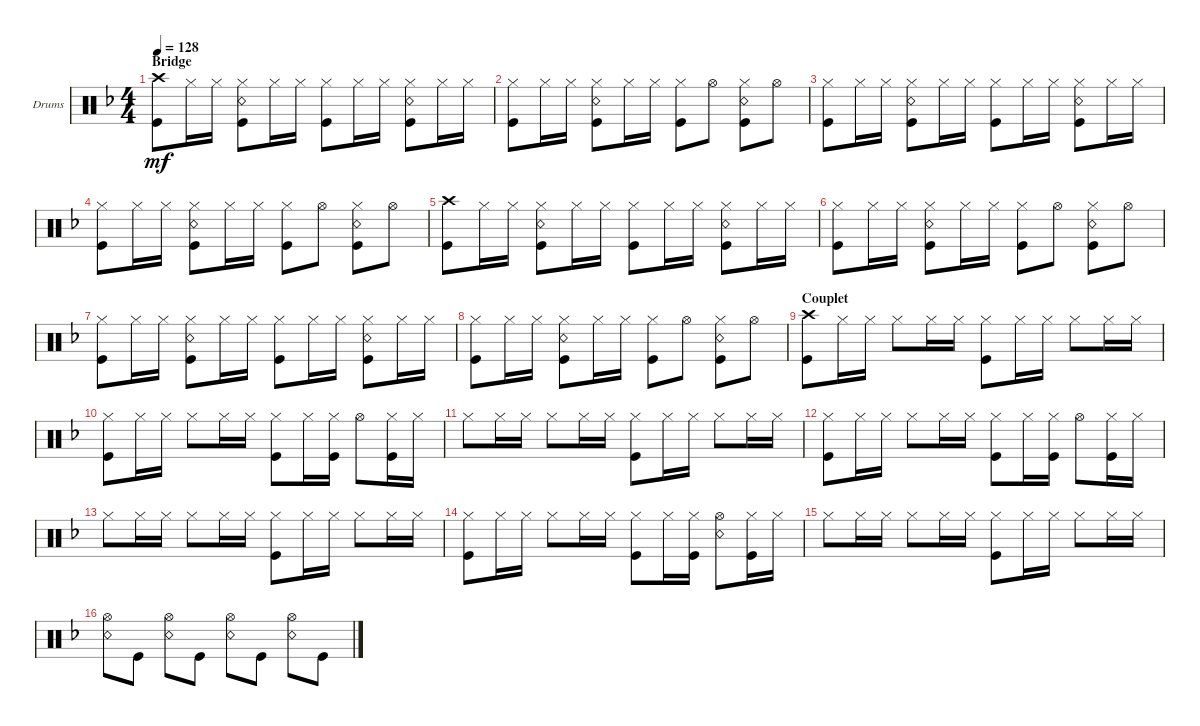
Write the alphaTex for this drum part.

\defaultSystemsLayout 4
\bracketExtendMode groupsimilarinstruments
\firstSystemTrackNameOrientation horizontal
\otherSystemsTrackNameOrientation horizontal
\track ("Drumkit" "Drums") {instrument percussion}
\staff {score}
\articulation defaults
\ts (4 4)
\section ("" "Bridge")
\tempo 128
\clef neutral
\scale
0.333333
\ks f
("Kick (hit)" "Crash high (hit)").8{dy mf} "Hi-Hat (closed)".16 "Hi-Hat (closed)".16 ("Snare (rim shot)" "Hi-Hat (closed)" "Kick (hit)").8 "Hi-Hat (closed)".16 "Hi-Hat (closed)".16 ("Kick (hit)" "Hi-Hat (closed)").8 "Hi-Hat (closed)".16 "Hi-Hat (closed)".16 ("Snare (rim shot)" "Hi-Hat (closed)" "Kick (hit)").8 "Hi-Hat (closed)".16 "Hi-Hat (closed)".16 |
\scale
0.333333 ("Kick (hit)" "Hi-Hat (closed)").8 "Hi-Hat (closed)".16 "Hi-Hat (closed)".16 ("Snare (rim shot)" "Hi-Hat (closed)" "Kick (hit)").8 "Hi-Hat (closed)".16 "Hi-Hat (closed)".16 ("Kick (hit)" "Hi-Hat (closed)").8 "Hi-Hat (open)".8 ("Snare (rim shot)" "Hi-Hat (closed)" "Kick (hit)").8 "Hi-Hat (open)".8 |
\scale
0.333333 ("Kick (hit)" "Hi-Hat (closed)").8 "Hi-Hat (closed)".16 "Hi-Hat (closed)".16 ("Snare (rim shot)" "Hi-Hat (closed)" "Kick (hit)").8 "Hi-Hat (closed)".16 "Hi-Hat (closed)".16 ("Kick (hit)" "Hi-Hat (closed)").8 "Hi-Hat (closed)".16 "Hi-Hat (closed)".16 ("Snare (rim shot)" "Hi-Hat (closed)" "Kick (hit)").8 "Hi-Hat (closed)".16 "Hi-Hat (closed)".16 |
\scale
0.333333 ("Kick (hit)" "Hi-Hat (closed)").8 "Hi-Hat (closed)".16 "Hi-Hat (closed)".16 ("Snare (rim shot)" "Hi-Hat (closed)" "Kick (hit)").8 "Hi-Hat (closed)".16 "Hi-Hat (closed)".16 ("Kick (hit)" "Hi-Hat (closed)").8 "Hi-Hat (open)".8 ("Snare (rim shot)" "Hi-Hat (closed)" "Kick (hit)").8 "Hi-Hat (open)".8 |
\scale
0.333333 ("Kick (hit)" "Crash high (hit)").8 "Hi-Hat (closed)".16 "Hi-Hat (closed)".16 ("Snare (rim shot)" "Hi-Hat (closed)" "Kick (hit)").8 "Hi-Hat (closed)".16 "Hi-Hat (closed)".16 ("Kick (hit)" "Hi-Hat (closed)").8 "Hi-Hat (closed)".16 "Hi-Hat (closed)".16 ("Snare (rim shot)" "Hi-Hat (closed)" "Kick (hit)").8 "Hi-Hat (closed)".16 "Hi-Hat (closed)".16 |
\scale
0.333333 ("Kick (hit)" "Hi-Hat (closed)").8 "Hi-Hat (closed)".16 "Hi-Hat (closed)".16 ("Snare (rim shot)" "Hi-Hat (closed)" "Kick (hit)").8 "Hi-Hat (closed)".16 "Hi-Hat (closed)".16 ("Kick (hit)" "Hi-Hat (closed)").8 "Hi-Hat (open)".8 ("Snare (rim shot)" "Hi-Hat (closed)" "Kick (hit)").8 "Hi-Hat (open)".8 |
\scale
0.333333 ("Kick (hit)" "Hi-Hat (closed)").8 "Hi-Hat (closed)".16 "Hi-Hat (closed)".16 ("Snare (rim shot)" "Hi-Hat (closed)" "Kick (hit)").8 "Hi-Hat (closed)".16 "Hi-Hat (closed)".16 ("Kick (hit)" "Hi-Hat (closed)").8 "Hi-Hat (closed)".16 "Hi-Hat (closed)".16 ("Snare (rim shot)" "Hi-Hat (closed)" "Kick (hit)").8 "Hi-Hat (closed)".16 "Hi-Hat (closed)".16 |
\scale
0.333333 ("Kick (hit)" "Hi-Hat (closed)").8 "Hi-Hat (closed)".16 "Hi-Hat (closed)".16 ("Snare (rim shot)" "Hi-Hat (closed)" "Kick (hit)").8 "Hi-Hat (closed)".16 "Hi-Hat (closed)".16 ("Kick (hit)" "Hi-Hat (closed)").8 "Hi-Hat (open)".8 ("Snare (rim shot)" "Hi-Hat (closed)" "Kick (hit)").8 "Hi-Hat (open)".8 |
\section ("" "Couplet")
\scale
0.333333 ("Kick (hit)" "Crash high (hit)").8 "Hi-Hat (closed)".16 "Hi-Hat (closed)".16 "Hi-Hat (closed)".8 "Hi-Hat (closed)".16 "Hi-Hat (closed)".16 ("Hi-Hat (closed)" "Kick (hit)").8 "Hi-Hat (closed)".16 "Hi-Hat (closed)".16 "Hi-Hat (closed)".8 "Hi-Hat (closed)".16 "Hi-Hat (closed)".16 |
\scale
0.333333 ("Hi-Hat (closed)" "Kick (hit)").8 "Hi-Hat (closed)".16 "Hi-Hat (closed)".16 "Hi-Hat (closed)".8 "Hi-Hat (closed)".16 "Hi-Hat (closed)".16 ("Hi-Hat (closed)" "Kick (hit)").8 "Hi-Hat (closed)".16 ("Hi-Hat (closed)" "Kick (hit)").16 "Hi-Hat (open)".8 ("Hi-Hat (closed)" "Kick (hit)").16 "Hi-Hat (closed)".16 |
\scale
0.333333 "Hi-Hat (closed)".8 "Hi-Hat (closed)".16 "Hi-Hat (closed)".16 "Hi-Hat (closed)".8 "Hi-Hat (closed)".16 "Hi-Hat (closed)".16 ("Hi-Hat (closed)" "Kick (hit)").8 "Hi-Hat (closed)".16 "Hi-Hat (closed)".16 "Hi-Hat (closed)".8 "Hi-Hat (closed)".16 "Hi-Hat (closed)".16 |
\scale
0.333333 ("Hi-Hat (closed)" "Kick (hit)").8 "Hi-Hat (closed)".16 "Hi-Hat (closed)".16 "Hi-Hat (closed)".8 "Hi-Hat (closed)".16 "Hi-Hat (closed)".16 ("Hi-Hat (closed)" "Kick (hit)").8 "Hi-Hat (closed)".16 ("Hi-Hat (closed)" "Kick (hit)").16 "Hi-Hat (open)".8 ("Hi-Hat (closed)" "Kick (hit)").16 "Hi-Hat (closed)".16 |
\scale
0.333333 "Hi-Hat (closed)".8 "Hi-Hat (closed)".16 "Hi-Hat (closed)".16 "Hi-Hat (closed)".8 "Hi-Hat (closed)".16 "Hi-Hat (closed)".16 ("Hi-Hat (closed)" "Kick (hit)").8 "Hi-Hat (closed)".16 "Hi-Hat (closed)".16 "Hi-Hat (closed)".8 "Hi-Hat (closed)".16 "Hi-Hat (closed)".16 |
\scale
0.333333 ("Hi-Hat (closed)" "Kick (hit)").8 "Hi-Hat (closed)".16 "Hi-Hat (closed)".16 "Hi-Hat (closed)".8 "Hi-Hat (closed)".16 "Hi-Hat (closed)".16 ("Hi-Hat (closed)" "Kick (hit)").8 "Hi-Hat (closed)".16 ("Hi-Hat (closed)" "Kick (hit)").16 ("Hi-Hat (open)" "Snare (rim shot)").8 ("Hi-Hat (closed)" "Kick (hit)").16 "Hi-Hat (closed)".16 |
\scale
0.333333 "Hi-Hat (closed)".8 "Hi-Hat (closed)".16 "Hi-Hat (closed)".16 "Hi-Hat (closed)".8 "Hi-Hat (closed)".16 "Hi-Hat (closed)".16 ("Hi-Hat (closed)" "Kick (hit)").8 "Hi-Hat (closed)".16 "Hi-Hat (closed)".16 "Hi-Hat (closed)".8 "Hi-Hat (closed)".16 "Hi-Hat (closed)".16 |
\scale
0.333333 ("Hi-Hat (open)" "Snare (rim shot)").8 "Kick (hit)".8 ("Hi-Hat (open)" "Snare (rim shot)").8 "Kick (hit)".8 ("Hi-Hat (open)" "Snare (rim shot)").8 "Kick (hit)".8 ("Hi-Hat (open)" "Snare (rim shot)").8 "Kick (hit)".8
